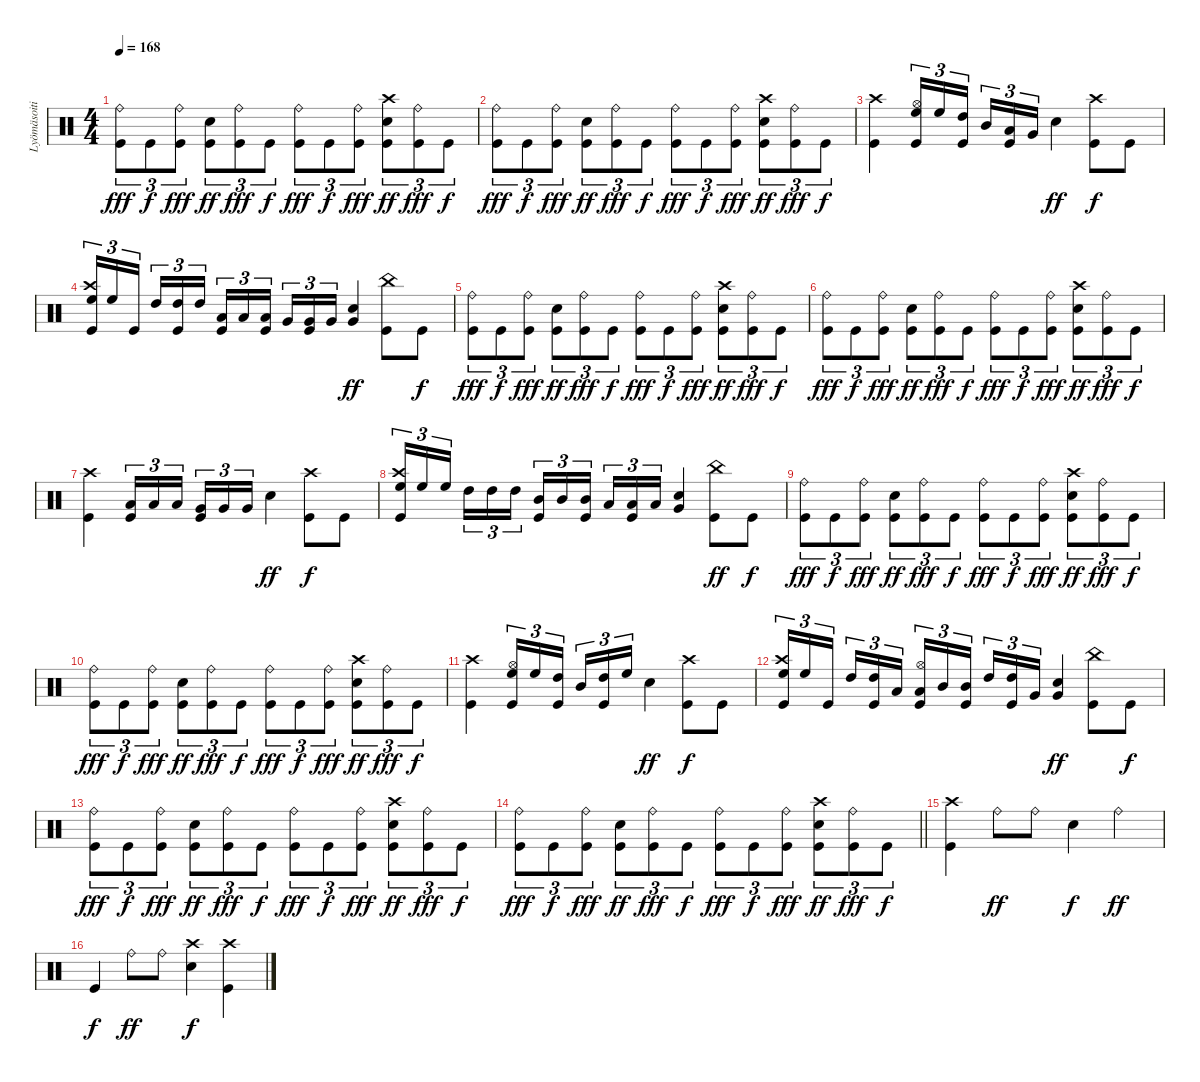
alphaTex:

\track ("Lyömäsoitin" "Lyömäsoiti") {instrument percussion}
\staff {score}
\articulation defaults
\ts (4 4)
\tempo 168
\clef neutral
\ks c
("Ride (bell)" "Kick (hit)").8{tu (3 2) dy fff} "Kick (hit)".8{tu (3 2) dy f} ("Ride (bell)" "Kick (hit)").8{tu (3 2) dy fff} ("Electric Snare (hit)" "Kick (hit)").8{tu (3 2) dy ff} ("Ride (bell)" "Kick (hit)").8{tu (3 2) dy fff} "Kick (hit)".8{tu (3 2) dy f} ("Ride (bell)" "Kick (hit)").8{tu (3 2) dy fff} "Kick (hit)".8{tu (3 2) dy f} ("Ride (bell)" "Kick (hit)").8{tu (3 2) dy fff} ("Crash high (hit)" "Electric Snare (hit)" "Kick (hit)").8{tu (3 2) dy ff} ("Ride (bell)" "Kick (hit)").8{tu (3 2) dy fff} "Kick (hit)".8{tu (3 2) dy f} |
("Ride (bell)" "Kick (hit)").8{tu (3 2) dy fff} "Kick (hit)".8{tu (3 2) dy f} ("Ride (bell)" "Kick (hit)").8{tu (3 2) dy fff} ("Electric Snare (hit)" "Kick (hit)").8{tu (3 2) dy ff} ("Ride (bell)" "Kick (hit)").8{tu (3 2) dy fff} "Kick (hit)".8{tu (3 2) dy f} ("Ride (bell)" "Kick (hit)").8{tu (3 2) dy fff} "Kick (hit)".8{tu (3 2) dy f} ("Ride (bell)" "Kick (hit)").8{tu (3 2) dy fff} ("Crash high (hit)" "Electric Snare (hit)" "Kick (hit)").8{tu (3 2) dy ff} ("Ride (bell)" "Kick (hit)").8{tu (3 2) dy fff} "Kick (hit)".8{tu (3 2) dy f} |
("Crash high (hit)" "Kick (hit)").4 ("Hi-Hat (open)" "High Floor Tom (hit)" "Kick (hit)").16{tu (3 2)} "High Floor Tom (hit)".16{tu (3 2)} ("High Tom (hit)" "Kick (hit)").16{tu (3 2) beam splitsecondary} "Mid Tom (hit)".16{tu (3 2)} ("Low Tom (hit)" "Kick (hit)").16{tu (3 2)} "Very Low Tom (hit)".16{tu (3 2)} "Electric Snare (hit)".4{dy ff} ("Crash high (hit)" "Kick (hit)").8{dy f} "Kick (hit)".8 |
("Crash high (hit)" "High Floor Tom (hit)" "Kick (hit)").16{tu (3 2)} "High Floor Tom (hit)".16{tu (3 2)} "Kick (hit)".16{tu (3 2) beam splitsecondary} "High Tom (hit)".16{tu (3 2)} ("High Tom (hit)" "Kick (hit)").16{tu (3 2)} "High Tom (hit)".16{tu (3 2)} ("Low Tom (hit)" "Kick (hit)").16{tu (3 2)} "Low Tom (hit)".16{tu (3 2)} ("Low Tom (hit)" "Kick (hit)").16{tu (3 2) beam splitsecondary} "Very Low Tom (hit)".16{tu (3 2)} ("Very Low Tom (hit)" "Kick (hit)").16{tu (3 2)} "Very Low Tom (hit)".16{tu (3 2)} ("Very Low Tom (hit)" "Electric Snare (hit)").4{dy ff} ("China (hit)" "Kick (hit)").8 "Kick (hit)".8{dy f} |
("Ride (bell)" "Kick (hit)").8{tu (3 2) dy fff} "Kick (hit)".8{tu (3 2) dy f} ("Ride (bell)" "Kick (hit)").8{tu (3 2) dy fff} ("Electric Snare (hit)" "Kick (hit)").8{tu (3 2) dy ff} ("Ride (bell)" "Kick (hit)").8{tu (3 2) dy fff} "Kick (hit)".8{tu (3 2) dy f} ("Ride (bell)" "Kick (hit)").8{tu (3 2) dy fff} "Kick (hit)".8{tu (3 2) dy f} ("Ride (bell)" "Kick (hit)").8{tu (3 2) dy fff} ("Crash high (hit)" "Electric Snare (hit)" "Kick (hit)").8{tu (3 2) dy ff} ("Ride (bell)" "Kick (hit)").8{tu (3 2) dy fff} "Kick (hit)".8{tu (3 2) dy f} |
("Ride (bell)" "Kick (hit)").8{tu (3 2) dy fff} "Kick (hit)".8{tu (3 2) dy f} ("Ride (bell)" "Kick (hit)").8{tu (3 2) dy fff} ("Electric Snare (hit)" "Kick (hit)").8{tu (3 2) dy ff} ("Ride (bell)" "Kick (hit)").8{tu (3 2) dy fff} "Kick (hit)".8{tu (3 2) dy f} ("Ride (bell)" "Kick (hit)").8{tu (3 2) dy fff} "Kick (hit)".8{tu (3 2) dy f} ("Ride (bell)" "Kick (hit)").8{tu (3 2) dy fff} ("Crash high (hit)" "Electric Snare (hit)" "Kick (hit)").8{tu (3 2) dy ff} ("Ride (bell)" "Kick (hit)").8{tu (3 2) dy fff} "Kick (hit)".8{tu (3 2) dy f} |
("Crash high (hit)" "Kick (hit)").4 ("Low Tom (hit)" "Kick (hit)").16{tu (3 2)} "Low Tom (hit)".16{tu (3 2)} "Low Tom (hit)".16{tu (3 2) beam splitsecondary} ("Very Low Tom (hit)" "Kick (hit)").16{tu (3 2)} "Very Low Tom (hit)".16{tu (3 2)} "Very Low Tom (hit)".16{tu (3 2)} "Electric Snare (hit)".4{dy ff} ("Crash high (hit)" "Kick (hit)").8{dy f} "Kick (hit)".8 |
("Crash high (hit)" "High Floor Tom (hit)" "Kick (hit)").16{tu (3 2)} "High Floor Tom (hit)".16{tu (3 2)} "High Floor Tom (hit)".16{tu (3 2) beam splitsecondary} "High Tom (hit)".16{tu (3 2)} "High Tom (hit)".16{tu (3 2)} "High Tom (hit)".16{tu (3 2)} ("Mid Tom (hit)" "Kick (hit)").16{tu (3 2)} "Mid Tom (hit)".16{tu (3 2)} ("Mid Tom (hit)" "Kick (hit)").16{tu (3 2) beam splitsecondary} "Low Tom (hit)".16{tu (3 2)} ("Low Tom (hit)" "Kick (hit)").16{tu (3 2)} "Low Tom (hit)".16{tu (3 2)} ("Very Low Tom (hit)" "Electric Snare (hit)").4 ("China (hit)" "Kick (hit)").8{dy ff} "Kick (hit)".8{dy f} |
("Ride (bell)" "Kick (hit)").8{tu (3 2) dy fff} "Kick (hit)".8{tu (3 2) dy f} ("Ride (bell)" "Kick (hit)").8{tu (3 2) dy fff} ("Electric Snare (hit)" "Kick (hit)").8{tu (3 2) dy ff} ("Ride (bell)" "Kick (hit)").8{tu (3 2) dy fff} "Kick (hit)".8{tu (3 2) dy f} ("Ride (bell)" "Kick (hit)").8{tu (3 2) dy fff} "Kick (hit)".8{tu (3 2) dy f} ("Ride (bell)" "Kick (hit)").8{tu (3 2) dy fff} ("Crash high (hit)" "Electric Snare (hit)" "Kick (hit)").8{tu (3 2) dy ff} ("Ride (bell)" "Kick (hit)").8{tu (3 2) dy fff} "Kick (hit)".8{tu (3 2) dy f} |
("Ride (bell)" "Kick (hit)").8{tu (3 2) dy fff} "Kick (hit)".8{tu (3 2) dy f} ("Ride (bell)" "Kick (hit)").8{tu (3 2) dy fff} ("Electric Snare (hit)" "Kick (hit)").8{tu (3 2) dy ff} ("Ride (bell)" "Kick (hit)").8{tu (3 2) dy fff} "Kick (hit)".8{tu (3 2) dy f} ("Ride (bell)" "Kick (hit)").8{tu (3 2) dy fff} "Kick (hit)".8{tu (3 2) dy f} ("Ride (bell)" "Kick (hit)").8{tu (3 2) dy fff} ("Crash high (hit)" "Electric Snare (hit)" "Kick (hit)").8{tu (3 2) dy ff} ("Ride (bell)" "Kick (hit)").8{tu (3 2) dy fff} "Kick (hit)".8{tu (3 2) dy f} |
("Crash high (hit)" "Kick (hit)").4 ("Hi-Hat (open)" "High Floor Tom (hit)" "Kick (hit)").16{tu (3 2)} "High Floor Tom (hit)".16{tu (3 2)} ("High Tom (hit)" "Kick (hit)").16{tu (3 2) beam splitsecondary} "Mid Tom (hit)".16{tu (3 2)} ("High Tom (hit)" "Kick (hit)").16{tu (3 2)} "High Floor Tom (hit)".16{tu (3 2)} "Electric Snare (hit)".4{dy ff} ("Crash high (hit)" "Kick (hit)").8{dy f} "Kick (hit)".8 |
("Crash high (hit)" "High Floor Tom (hit)" "Kick (hit)").16{tu (3 2)} "High Floor Tom (hit)".16{tu (3 2)} "Kick (hit)".16{tu (3 2) beam splitsecondary} "High Tom (hit)".16{tu (3 2)} ("High Tom (hit)" "Kick (hit)").16{tu (3 2)} "Low Tom (hit)".16{tu (3 2)} ("Hi-Hat (open)" "Low Tom (hit)" "Kick (hit)").16{tu (3 2)} "Mid Tom (hit)".16{tu (3 2)} ("Mid Tom (hit)" "Kick (hit)").16{tu (3 2) beam splitsecondary} "High Tom (hit)".16{tu (3 2)} ("High Tom (hit)" "Kick (hit)").16{tu (3 2)} "Very Low Tom (hit)".16{tu (3 2)} ("Very Low Tom (hit)" "Electric Snare (hit)").4{dy ff} ("China (hit)" "Kick (hit)").8 "Kick (hit)".8{dy f} |
("Ride (bell)" "Kick (hit)").8{tu (3 2) dy fff} "Kick (hit)".8{tu (3 2) dy f} ("Ride (bell)" "Kick (hit)").8{tu (3 2) dy fff} ("Electric Snare (hit)" "Kick (hit)").8{tu (3 2) dy ff} ("Ride (bell)" "Kick (hit)").8{tu (3 2) dy fff} "Kick (hit)".8{tu (3 2) dy f} ("Ride (bell)" "Kick (hit)").8{tu (3 2) dy fff} "Kick (hit)".8{tu (3 2) dy f} ("Ride (bell)" "Kick (hit)").8{tu (3 2) dy fff} ("Crash high (hit)" "Electric Snare (hit)" "Kick (hit)").8{tu (3 2) dy ff} ("Ride (bell)" "Kick (hit)").8{tu (3 2) dy fff} "Kick (hit)".8{tu (3 2) dy f} |
\barLineRight lightlight
("Ride (bell)" "Kick (hit)").8{tu (3 2) dy fff} "Kick (hit)".8{tu (3 2) dy f} ("Ride (bell)" "Kick (hit)").8{tu (3 2) dy fff} ("Electric Snare (hit)" "Kick (hit)").8{tu (3 2) dy ff} ("Ride (bell)" "Kick (hit)").8{tu (3 2) dy fff} "Kick (hit)".8{tu (3 2) dy f} ("Ride (bell)" "Kick (hit)").8{tu (3 2) dy fff} "Kick (hit)".8{tu (3 2) dy f} ("Ride (bell)" "Kick (hit)").8{tu (3 2) dy fff} ("Crash high (hit)" "Electric Snare (hit)" "Kick (hit)").8{tu (3 2) dy ff} ("Ride (bell)" "Kick (hit)").8{tu (3 2) dy fff} "Kick (hit)".8{tu (3 2) dy f} |
("Crash high (hit)" "Kick (hit)").4 "Ride (bell)".8{dy ff} "Ride (bell)".8 "Electric Snare (hit)".4{dy f} "Ride (bell)".4{dy ff} |
"Kick (hit)".4{dy f} "Ride (bell)".8{dy ff} "Ride (bell)".8 ("Crash high (hit)" "Electric Snare (hit)").4{dy f} ("Crash high (hit)" "Kick (hit)").4
